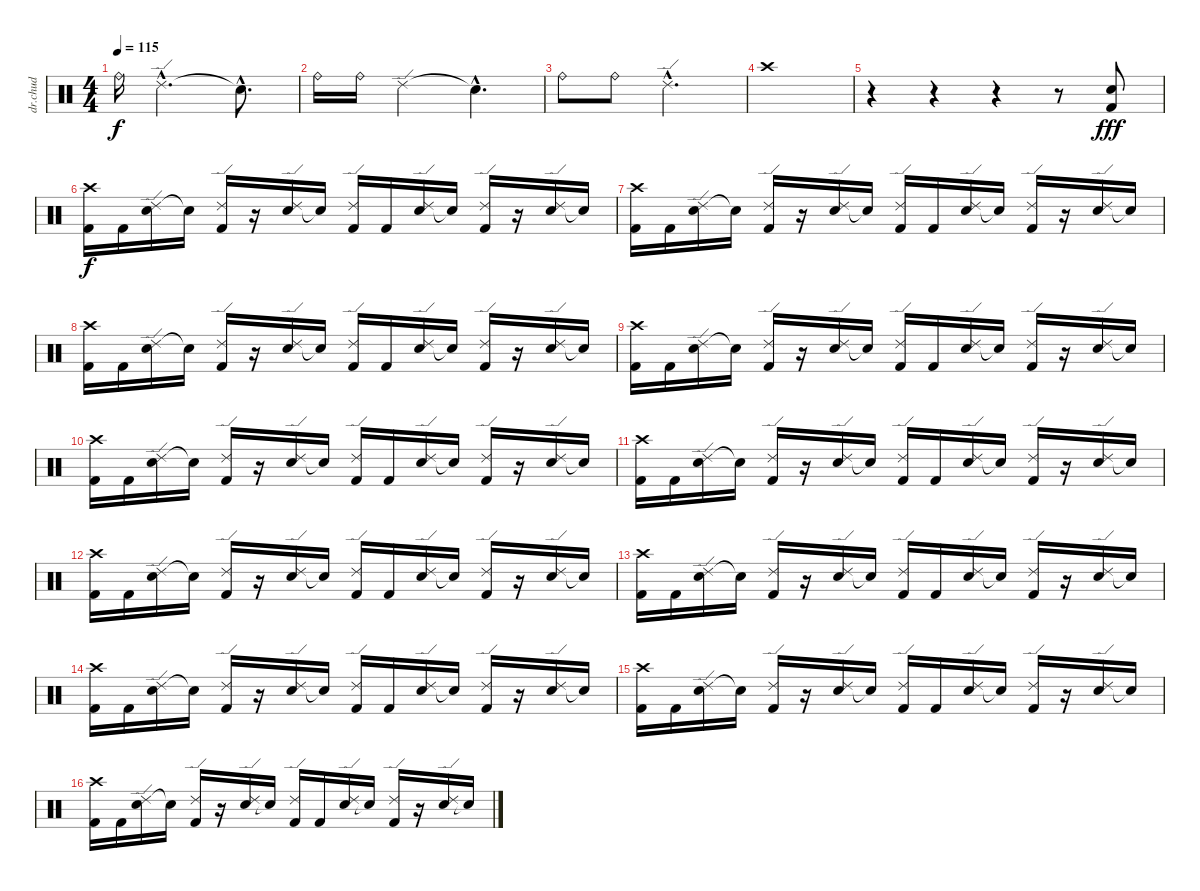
\track ("dr.chud" "dr.chud") {instrument percussion}
\staff {score}
\articulation defaults
\ts (4 4)
\tempo 115
\clef neutral
\ks c "Ride (bell)".16{dy f} "Ride (edge) 2"{hac}.2{d} "Snare (hit)"{hac t}.8{d}
|
"Ride (bell)".16 "Ride (bell)".16 "Ride (edge) 2".2 "Snare (hit)"{hac t}.4{d} |
"Ride (bell)".8 "Ride (bell)".8 "Ride (edge) 2"{hac}.2{d} |
"Crash high (hit)".1 |
r.4 r.4 r.4 r.8 ("Electric Snare (hit)" "Kick (hit) 2").8{dy fff} |
("Crash high (hit)" "Kick (hit) 2").16{dy f} "Kick (hit) 2".16 ("Ride (edge) 2" "Electric Snare (hit)").16 "Snare (hit)"{t}.16 ("Ride (edge) 2" "Kick (hit) 2").16 r.16 ("Ride (edge) 2" "Electric Snare (hit)").16 "Electric Snare (hit)"{t}.16 ("Ride (edge) 2" "Kick (hit) 2").16 "Kick (hit) 2".16 ("Ride (edge) 2" "Electric Snare (hit)").16 "Snare (hit)"{t}.16 ("Ride (edge) 2" "Kick (hit) 2").16 r.16 ("Ride (edge) 2" "Electric Snare (hit)").16 "Snare (hit)"{t}.16 |
("Crash high (hit)" "Kick (hit) 2").16 "Kick (hit) 2".16 ("Ride (edge) 2" "Electric Snare (hit)").16 "Snare (hit)"{t}.16 ("Ride (edge) 2" "Kick (hit) 2").16 r.16 ("Ride (edge) 2" "Electric Snare (hit)").16 "Electric Snare (hit)"{t}.16 ("Ride (edge) 2" "Kick (hit) 2").16 "Kick (hit) 2".16 ("Ride (edge) 2" "Electric Snare (hit)").16 "Snare (hit)"{t}.16 ("Ride (edge) 2" "Kick (hit) 2").16 r.16 ("Ride (edge) 2" "Electric Snare (hit)").16 "Snare (hit)"{t}.16 |
("Crash high (hit)" "Kick (hit) 2").16 "Kick (hit) 2".16 ("Ride (edge) 2" "Electric Snare (hit)").16 "Snare (hit)"{t}.16 ("Ride (edge) 2" "Kick (hit) 2").16 r.16 ("Ride (edge) 2" "Electric Snare (hit)").16 "Electric Snare (hit)"{t}.16 ("Ride (edge) 2" "Kick (hit) 2").16 "Kick (hit) 2".16 ("Ride (edge) 2" "Electric Snare (hit)").16 "Snare (hit)"{t}.16 ("Ride (edge) 2" "Kick (hit) 2").16 r.16 ("Ride (edge) 2" "Electric Snare (hit)").16 "Snare (hit)"{t}.16 |
("Crash high (hit)" "Kick (hit) 2").16 "Kick (hit) 2".16 ("Ride (edge) 2" "Electric Snare (hit)").16 "Snare (hit)"{t}.16 ("Ride (edge) 2" "Kick (hit) 2").16 r.16 ("Ride (edge) 2" "Electric Snare (hit)").16 "Electric Snare (hit)"{t}.16 ("Ride (edge) 2" "Kick (hit) 2").16 "Kick (hit) 2".16 ("Ride (edge) 2" "Electric Snare (hit)").16 "Snare (hit)"{t}.16 ("Ride (edge) 2" "Kick (hit) 2").16 r.16 ("Ride (edge) 2" "Electric Snare (hit)").16 "Snare (hit)"{t}.16 |
("Crash high (hit)" "Kick (hit) 2").16 "Kick (hit) 2".16 ("Ride (edge) 2" "Electric Snare (hit)").16 "Snare (hit)"{t}.16 ("Ride (edge) 2" "Kick (hit) 2").16 r.16 ("Ride (edge) 2" "Electric Snare (hit)").16 "Electric Snare (hit)"{t}.16 ("Ride (edge) 2" "Kick (hit) 2").16 "Kick (hit) 2".16 ("Ride (edge) 2" "Electric Snare (hit)").16 "Snare (hit)"{t}.16 ("Ride (edge) 2" "Kick (hit) 2").16 r.16 ("Ride (edge) 2" "Electric Snare (hit)").16 "Snare (hit)"{t}.16 |
("Crash high (hit)" "Kick (hit) 2").16 "Kick (hit) 2".16 ("Ride (edge) 2" "Electric Snare (hit)").16 "Snare (hit)"{t}.16 ("Ride (edge) 2" "Kick (hit) 2").16 r.16 ("Ride (edge) 2" "Electric Snare (hit)").16 "Electric Snare (hit)"{t}.16 ("Ride (edge) 2" "Kick (hit) 2").16 "Kick (hit) 2".16 ("Ride (edge) 2" "Electric Snare (hit)").16 "Snare (hit)"{t}.16 ("Ride (edge) 2" "Kick (hit) 2").16 r.16 ("Ride (edge) 2" "Electric Snare (hit)").16 "Snare (hit)"{t}.16 |
("Crash high (hit)" "Kick (hit) 2").16 "Kick (hit) 2".16 ("Ride (edge) 2" "Electric Snare (hit)").16 "Snare (hit)"{t}.16 ("Ride (edge) 2" "Kick (hit) 2").16 r.16 ("Ride (edge) 2" "Electric Snare (hit)").16 "Electric Snare (hit)"{t}.16 ("Ride (edge) 2" "Kick (hit) 2").16 "Kick (hit) 2".16 ("Ride (edge) 2" "Electric Snare (hit)").16 "Snare (hit)"{t}.16 ("Ride (edge) 2" "Kick (hit) 2").16 r.16 ("Ride (edge) 2" "Electric Snare (hit)").16 "Snare (hit)"{t}.16 |
("Crash high (hit)" "Kick (hit) 2").16 "Kick (hit) 2".16 ("Ride (edge) 2" "Electric Snare (hit)").16 "Snare (hit)"{t}.16 ("Ride (edge) 2" "Kick (hit) 2").16 r.16 ("Ride (edge) 2" "Electric Snare (hit)").16 "Electric Snare (hit)"{t}.16 ("Ride (edge) 2" "Kick (hit) 2").16 "Kick (hit) 2".16 ("Ride (edge) 2" "Electric Snare (hit)").16 "Snare (hit)"{t}.16 ("Ride (edge) 2" "Kick (hit) 2").16 r.16 ("Ride (edge) 2" "Electric Snare (hit)").16 "Snare (hit)"{t}.16 |
("Crash high (hit)" "Kick (hit) 2").16 "Kick (hit) 2".16 ("Ride (edge) 2" "Electric Snare (hit)").16 "Snare (hit)"{t}.16 ("Ride (edge) 2" "Kick (hit) 2").16 r.16 ("Ride (edge) 2" "Electric Snare (hit)").16 "Electric Snare (hit)"{t}.16 ("Ride (edge) 2" "Kick (hit) 2").16 "Kick (hit) 2".16 ("Ride (edge) 2" "Electric Snare (hit)").16 "Snare (hit)"{t}.16 ("Ride (edge) 2" "Kick (hit) 2").16 r.16 ("Ride (edge) 2" "Electric Snare (hit)").16 "Snare (hit)"{t}.16 |
("Crash high (hit)" "Kick (hit) 2").16 "Kick (hit) 2".16 ("Ride (edge) 2" "Electric Snare (hit)").16 "Snare (hit)"{t}.16 ("Ride (edge) 2" "Kick (hit) 2").16 r.16 ("Ride (edge) 2" "Electric Snare (hit)").16 "Electric Snare (hit)"{t}.16 ("Ride (edge) 2" "Kick (hit) 2").16 "Kick (hit) 2".16 ("Ride (edge) 2" "Electric Snare (hit)").16 "Snare (hit)"{t}.16 ("Ride (edge) 2" "Kick (hit) 2").16 r.16 ("Ride (edge) 2" "Electric Snare (hit)").16 "Snare (hit)"{t}.16 |
("Crash high (hit)" "Kick (hit) 2").16 "Kick (hit) 2".16 ("Ride (edge) 2" "Electric Snare (hit)").16 "Snare (hit)"{t}.16 ("Ride (edge) 2" "Kick (hit) 2").16 r.16 ("Ride (edge) 2" "Electric Snare (hit)").16 "Electric Snare (hit)"{t}.16 ("Ride (edge) 2" "Kick (hit) 2").16 "Kick (hit) 2".16 ("Ride (edge) 2" "Electric Snare (hit)").16 "Snare (hit)"{t}.16 ("Ride (edge) 2" "Kick (hit) 2").16 r.16 ("Ride (edge) 2" "Electric Snare (hit)").16 "Snare (hit)"{t}.16
